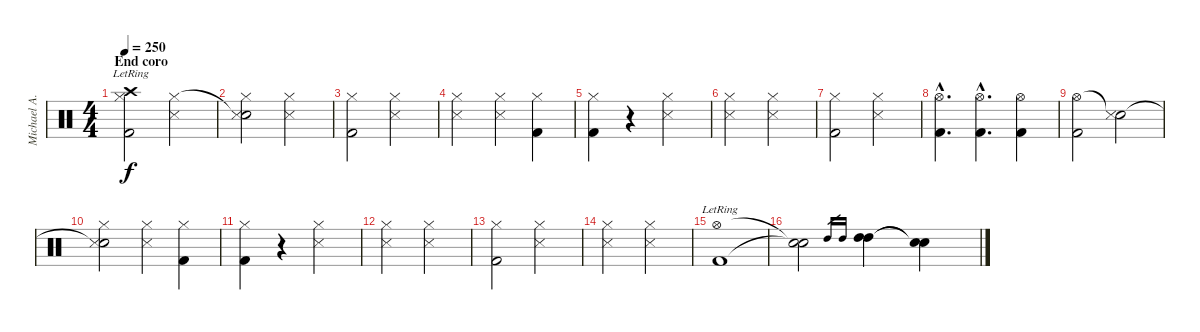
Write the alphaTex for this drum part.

\track ("Michael A." "Michael A.") {instrument percussion}
\staff {score}
\articulation defaults
\ts (4 4)
\section ("" "End coro")
\tempo 250
\clef neutral
\ks c
("Crash high (hit)"{lr} "Hi-Hat (closed)" "Kick (hit) 2").2{dy f} ("Hi-Hat (closed)" "Snare (side stick) 3").2 |
("Snare (hit)"{t} "Hi-Hat (closed)" "Snare (side stick) 3").2 ("Hi-Hat (closed)" "Snare (side stick) 3").2 |
("Hi-Hat (closed)" "Kick (hit) 2").2 ("Hi-Hat (closed)" "Snare (side stick) 3").2 |
("Hi-Hat (closed)" "Snare (side stick) 3").2 ("Hi-Hat (closed)" "Snare (side stick) 3").4 ("Hi-Hat (closed)" "Kick (hit) 2").4 |
("Hi-Hat (closed)" "Kick (hit) 2").4 r.4 ("Hi-Hat (closed)" "Snare (side stick) 3").2 |
("Hi-Hat (closed)" "Snare (side stick) 3").2 ("Hi-Hat (closed)" "Snare (side stick) 3").2 |
("Hi-Hat (closed)" "Kick (hit) 2").2 ("Hi-Hat (closed)" "Snare (side stick) 3").2 |
("Hi-Hat (open)"{hac} "Kick (hit) 2"{hac}).4{d} ("Hi-Hat (open)"{hac} "Kick (hit) 2"{hac}).4{d} ("Hi-Hat (open)" "Kick (hit) 2").4 |
("Hi-Hat (open)" "Kick (hit) 2").2 ("Snare (hit)"{t} "Snare (side stick) 3").2 |
("Snare (hit)"{t} "Hi-Hat (closed)" "Snare (side stick) 3").2 ("Hi-Hat (closed)" "Snare (side stick) 3").4 ("Hi-Hat (closed)" "Kick (hit) 2").4 |
("Hi-Hat (closed)" "Kick (hit) 2").4 r.4 ("Hi-Hat (closed)" "Snare (side stick) 3").2 |
("Hi-Hat (closed)" "Snare (side stick) 3").2 ("Hi-Hat (closed)" "Snare (side stick) 3").2 |
("Hi-Hat (closed)" "Kick (hit) 2").2 ("Hi-Hat (closed)" "Snare (side stick) 3").2 |
("Hi-Hat (closed)" "Snare (side stick) 3").2 ("Hi-Hat (closed)" "Snare (side stick) 3").2 |
("Hi-Hat (open)"{lr} "Kick (hit) 2"{lr}).1 |
("Snare (hit)"{t} "Snare (hit)"{t}).2 "High Tom (hit)".16{gr} "High Tom (hit)".16{gr} ("High Tom (hit)" "High Tom (hit)").4 ("Snare (hit)"{t} "Snare (hit)"{t}).4
